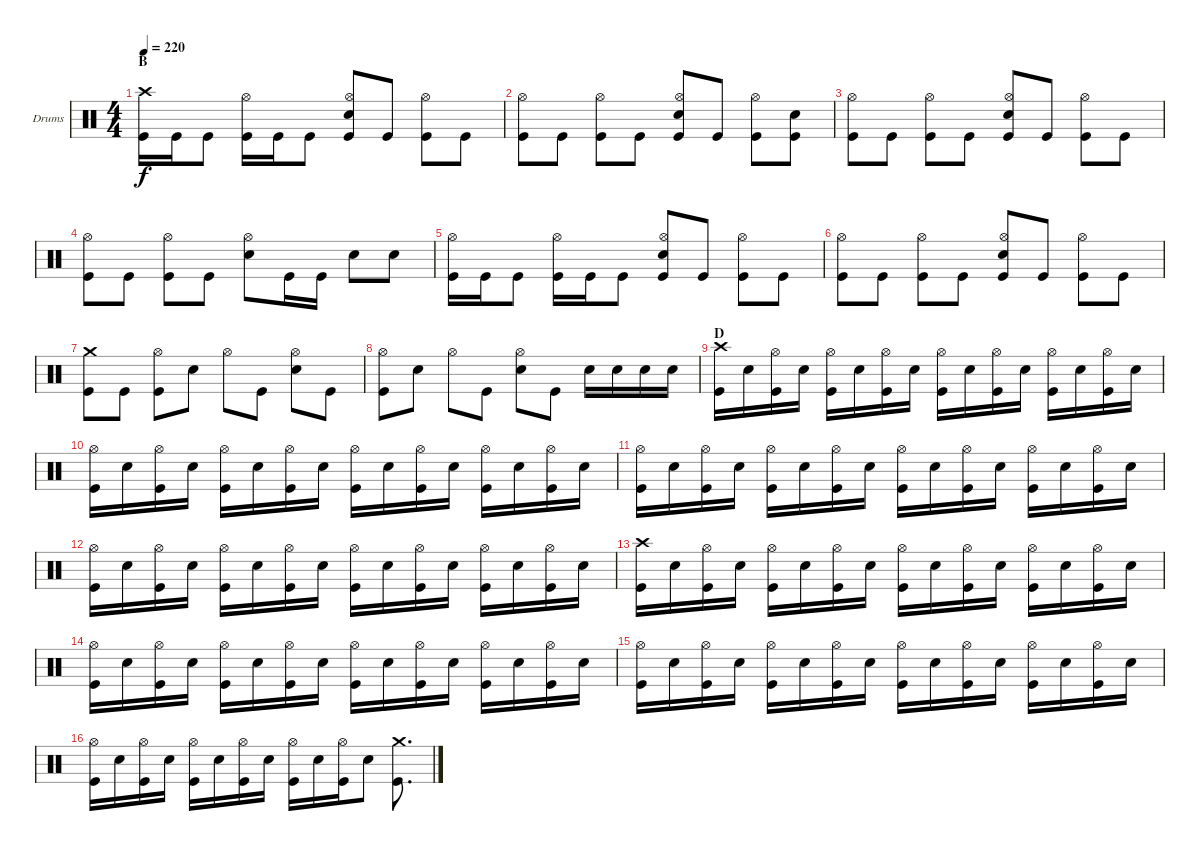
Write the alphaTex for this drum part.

\bracketExtendMode groupsimilarinstruments
\firstSystemTrackNameOrientation horizontal
\otherSystemsTrackNameOrientation horizontal
\track ("Drumkit" "Drums") {instrument percussion}
\staff {score}
\articulation defaults
\ts (4 4)
\section ("" "B")
\tempo 220
\clef neutral
\scale
0.548023
\ks c
("Crash high (hit)" "Kick (hit)").16{dy f} "Kick (hit)".16 "Kick (hit)".8 ("Hi-Hat (open)" "Kick (hit)").16 "Kick (hit)".16 "Kick (hit)".8 ("Hi-Hat (open)" "Snare (hit) 2" "Kick (hit)").8 "Kick (hit)".8 ("Hi-Hat (open)" "Kick (hit)").8 "Kick (hit)".8 |
\scale
0.451977 ("Hi-Hat (open)" "Kick (hit)").8 "Kick (hit)".8 ("Hi-Hat (open)" "Kick (hit)").8 "Kick (hit)".8 ("Hi-Hat (open)" "Snare (hit) 2" "Kick (hit)").8 "Kick (hit)".8 ("Hi-Hat (open)" "Kick (hit)").8 ("Snare (hit) 2" "Kick (hit)").8 |
\scale
0.463768 ("Hi-Hat (open)" "Kick (hit)").8 "Kick (hit)".8 ("Hi-Hat (open)" "Kick (hit)").8 "Kick (hit)".8 ("Hi-Hat (open)" "Snare (hit) 2" "Kick (hit)").8 "Kick (hit)".8 ("Hi-Hat (open)" "Kick (hit)").8 "Kick (hit)".8 |
\scale
0.536232 ("Hi-Hat (open)" "Kick (hit)").8 "Kick (hit)".8 ("Hi-Hat (open)" "Kick (hit)").8 "Kick (hit)".8 ("Hi-Hat (open)" "Snare (hit) 2").8 "Kick (hit)".16 "Kick (hit)".16 "Snare (hit) 2".8 "Snare (hit) 2".8 |
\scale
0.548023 ("Hi-Hat (open)" "Kick (hit)").16 "Kick (hit)".16 "Kick (hit)".8 ("Hi-Hat (open)" "Kick (hit)").16 "Kick (hit)".16 "Kick (hit)".8 ("Hi-Hat (open)" "Snare (hit) 2" "Kick (hit)").8 "Kick (hit)".8 ("Hi-Hat (open)" "Kick (hit)").8 "Kick (hit)".8 |
\scale
0.451977 ("Hi-Hat (open)" "Kick (hit)").8 "Kick (hit)".8 ("Hi-Hat (open)" "Kick (hit)").8 "Kick (hit)".8 ("Hi-Hat (open)" "Snare (hit) 2" "Kick (hit)").8 "Kick (hit)".8 ("Hi-Hat (open)" "Kick (hit)").8 "Kick (hit)".8 |
\scale
0.451977 ("Crash medium (hit)" "Kick (hit)").8 "Kick (hit)".8 ("Hi-Hat (open)" "Kick (hit)").8 "Snare (hit) 2".8 "Hi-Hat (open)".8 "Kick (hit)".8 ("Hi-Hat (open)" "Snare (hit) 2").8 "Kick (hit)".8 |
\scale
0.548023 ("Hi-Hat (open)" "Kick (hit)").8 "Snare (hit) 2".8 "Hi-Hat (open)".8 "Kick (hit)".8 ("Hi-Hat (open)" "Snare (hit) 2").8 "Kick (hit)".8 "Snare (hit) 2".16 "Snare (hit) 2".16 "Snare (hit) 2".16 "Snare (hit) 2".16 |
\section ("" "D")
\scale
0.5 ("Kick (hit)" "Crash high (hit)").16 "Snare (hit) 2".16 ("Kick (hit)" "Hi-Hat (open)").16 "Snare (hit) 2".16 ("Kick (hit)" "Hi-Hat (open)").16 "Snare (hit) 2".16 ("Kick (hit)" "Hi-Hat (open)").16 "Snare (hit) 2".16 ("Kick (hit)" "Hi-Hat (open)").16 "Snare (hit) 2".16 ("Kick (hit)" "Hi-Hat (open)").16 "Snare (hit) 2".16 ("Kick (hit)" "Hi-Hat (open)").16 "Snare (hit) 2".16 ("Kick (hit)" "Hi-Hat (open)").16 "Snare (hit) 2".16 |
\scale
0.5 ("Kick (hit)" "Hi-Hat (open)").16 "Snare (hit) 2".16 ("Kick (hit)" "Hi-Hat (open)").16 "Snare (hit) 2".16 ("Kick (hit)" "Hi-Hat (open)").16 "Snare (hit) 2".16 ("Kick (hit)" "Hi-Hat (open)").16 "Snare (hit) 2".16 ("Kick (hit)" "Hi-Hat (open)").16 "Snare (hit) 2".16 ("Kick (hit)" "Hi-Hat (open)").16 "Snare (hit) 2".16 ("Kick (hit)" "Hi-Hat (open)").16 "Snare (hit) 2".16 ("Kick (hit)" "Hi-Hat (open)").16 "Snare (hit) 2".16 |
\scale
0.5 ("Kick (hit)" "Hi-Hat (open)").16 "Snare (hit) 2".16 ("Kick (hit)" "Hi-Hat (open)").16 "Snare (hit) 2".16 ("Kick (hit)" "Hi-Hat (open)").16 "Snare (hit) 2".16 ("Kick (hit)" "Hi-Hat (open)").16 "Snare (hit) 2".16 ("Kick (hit)" "Hi-Hat (open)").16 "Snare (hit) 2".16 ("Kick (hit)" "Hi-Hat (open)").16 "Snare (hit) 2".16 ("Kick (hit)" "Hi-Hat (open)").16 "Snare (hit) 2".16 ("Kick (hit)" "Hi-Hat (open)").16 "Snare (hit) 2".16 |
\scale
0.5 ("Kick (hit)" "Hi-Hat (open)").16 "Snare (hit) 2".16 ("Kick (hit)" "Hi-Hat (open)").16 "Snare (hit) 2".16 ("Kick (hit)" "Hi-Hat (open)").16 "Snare (hit) 2".16 ("Kick (hit)" "Hi-Hat (open)").16 "Snare (hit) 2".16 ("Kick (hit)" "Hi-Hat (open)").16 "Snare (hit) 2".16 ("Kick (hit)" "Hi-Hat (open)").16 "Snare (hit) 2".16 ("Kick (hit)" "Hi-Hat (open)").16 "Snare (hit) 2".16 ("Kick (hit)" "Hi-Hat (open)").16 "Snare (hit) 2".16 |
\scale
0.5 ("Kick (hit)" "Crash high (hit)").16 "Snare (hit) 2".16 ("Kick (hit)" "Hi-Hat (open)").16 "Snare (hit) 2".16 ("Kick (hit)" "Hi-Hat (open)").16 "Snare (hit) 2".16 ("Kick (hit)" "Hi-Hat (open)").16 "Snare (hit) 2".16 ("Kick (hit)" "Hi-Hat (open)").16 "Snare (hit) 2".16 ("Kick (hit)" "Hi-Hat (open)").16 "Snare (hit) 2".16 ("Kick (hit)" "Hi-Hat (open)").16 "Snare (hit) 2".16 ("Kick (hit)" "Hi-Hat (open)").16 "Snare (hit) 2".16 |
\scale
0.5 ("Kick (hit)" "Hi-Hat (open)").16 "Snare (hit) 2".16 ("Kick (hit)" "Hi-Hat (open)").16 "Snare (hit) 2".16 ("Kick (hit)" "Hi-Hat (open)").16 "Snare (hit) 2".16 ("Kick (hit)" "Hi-Hat (open)").16 "Snare (hit) 2".16 ("Kick (hit)" "Hi-Hat (open)").16 "Snare (hit) 2".16 ("Kick (hit)" "Hi-Hat (open)").16 "Snare (hit) 2".16 ("Kick (hit)" "Hi-Hat (open)").16 "Snare (hit) 2".16 ("Kick (hit)" "Hi-Hat (open)").16 "Snare (hit) 2".16 |
\scale
0.528785 ("Kick (hit)" "Hi-Hat (open)").16 "Snare (hit) 2".16 ("Kick (hit)" "Hi-Hat (open)").16 "Snare (hit) 2".16 ("Kick (hit)" "Hi-Hat (open)").16 "Snare (hit) 2".16 ("Kick (hit)" "Hi-Hat (open)").16 "Snare (hit) 2".16 ("Kick (hit)" "Hi-Hat (open)").16 "Snare (hit) 2".16 ("Kick (hit)" "Hi-Hat (open)").16 "Snare (hit) 2".16 ("Kick (hit)" "Hi-Hat (open)").16 "Snare (hit) 2".16 ("Kick (hit)" "Hi-Hat (open)").16 "Snare (hit) 2".16 |
\scale
0.471215 ("Kick (hit)" "Hi-Hat (open)").16 "Snare (hit) 2".16 ("Kick (hit)" "Hi-Hat (open)").16 "Snare (hit) 2".16 ("Kick (hit)" "Hi-Hat (open)").16 "Snare (hit) 2".16 ("Kick (hit)" "Hi-Hat (open)").16 "Snare (hit) 2".16 ("Kick (hit)" "Hi-Hat (open)").16 "Snare (hit) 2".16 ("Kick (hit)" "Hi-Hat (open)").16 "Snare (hit) 2".8 ("Crash medium (hit)" "Kick (hit)").8{d}
